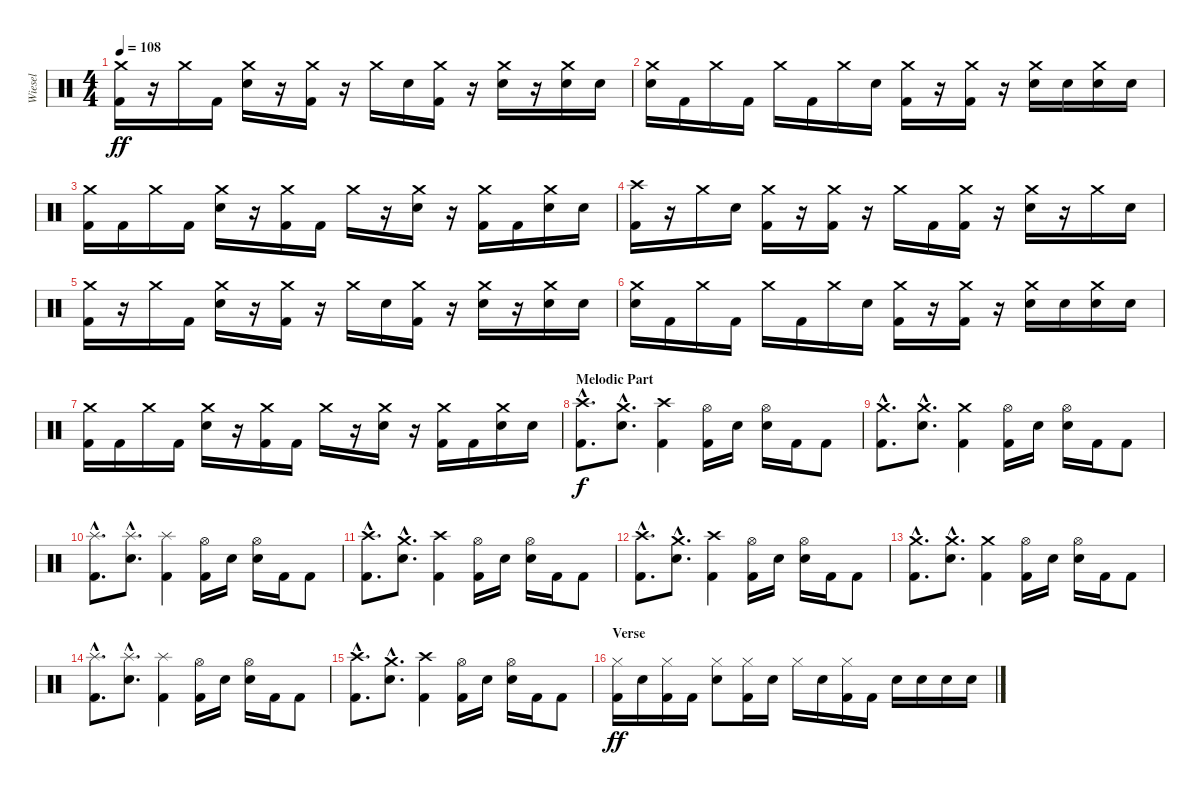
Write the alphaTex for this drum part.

\track ("Wiesel" "Wiesel") {instrument percussion}
\staff {score}
\articulation defaults
\ts (4 4)
\tempo 108
\clef neutral
\ks c
("Crash medium (hit)" "Kick (hit) 2").16{dy ff} r.16 "Crash medium (hit)".16 "Kick (hit) 2".16 ("Crash medium (hit)" "Electric Snare (hit)").16 r.16 ("Crash medium (hit)" "Kick (hit) 2").16 r.16 "Crash medium (hit)".16 "Electric Snare (hit)".16 ("Crash medium (hit)" "Kick (hit) 2").16 r.16 ("Crash medium (hit)" "Electric Snare (hit)").16 r.16 ("Crash medium (hit)" "Electric Snare (hit)").16 "Electric Snare (hit)".16 |
("Crash medium (hit)" "Electric Snare (hit)").16 "Kick (hit) 2".16 "Crash medium (hit)".16 "Kick (hit) 2".16 "Crash medium (hit)".16 "Kick (hit) 2".16 "Crash medium (hit)".16 "Electric Snare (hit)".16 ("Crash medium (hit)" "Kick (hit) 2").16 r.16 ("Crash medium (hit)" "Kick (hit) 2").16 r.16 ("Crash medium (hit)" "Electric Snare (hit)").16 "Electric Snare (hit)".16 ("Crash medium (hit)" "Electric Snare (hit)").16 "Electric Snare (hit)".16 |
("Crash medium (hit)" "Kick (hit) 2").16 "Kick (hit) 2".16 "Crash medium (hit)".16 "Kick (hit) 2".16 ("Crash medium (hit)" "Electric Snare (hit)").16 r.16 ("Crash medium (hit)" "Kick (hit) 2").16 "Kick (hit) 2".16 "Crash medium (hit)".16 r.16 ("Crash medium (hit)" "Electric Snare (hit)").16 r.16 ("Crash medium (hit)" "Kick (hit) 2").16 "Kick (hit) 2".16 ("Crash medium (hit)" "Electric Snare (hit)").16 "Electric Snare (hit)".16 |
("Crash high (hit)" "Kick (hit) 2").16 r.16 "Crash medium (hit)".16 "Electric Snare (hit)".16 ("Crash medium (hit)" "Kick (hit) 2").16 r.16 ("Crash medium (hit)" "Kick (hit) 2").16 r.16 "Crash medium (hit)".16 "Kick (hit) 2".16 ("Crash medium (hit)" "Kick (hit) 2").16 r.16 ("Crash medium (hit)" "Electric Snare (hit)").16 r.16 "Crash medium (hit)".16 "Electric Snare (hit)".16 |
("Crash medium (hit)" "Kick (hit) 2").16 r.16 "Crash medium (hit)".16 "Kick (hit) 2".16 ("Crash medium (hit)" "Electric Snare (hit)").16 r.16 ("Crash medium (hit)" "Kick (hit) 2").16 r.16 "Crash medium (hit)".16 "Electric Snare (hit)".16 ("Crash medium (hit)" "Kick (hit) 2").16 r.16 ("Crash medium (hit)" "Electric Snare (hit)").16 r.16 ("Crash medium (hit)" "Electric Snare (hit)").16 "Electric Snare (hit)".16 |
("Crash medium (hit)" "Electric Snare (hit)").16 "Kick (hit) 2".16 "Crash medium (hit)".16 "Kick (hit) 2".16 "Crash medium (hit)".16 "Kick (hit) 2".16 "Crash medium (hit)".16 "Electric Snare (hit)".16 ("Crash medium (hit)" "Kick (hit) 2").16 r.16 ("Crash medium (hit)" "Kick (hit) 2").16 r.16 ("Crash medium (hit)" "Electric Snare (hit)").16 "Electric Snare (hit)".16 ("Crash medium (hit)" "Electric Snare (hit)").16 "Electric Snare (hit)".16 |
("Crash medium (hit)" "Kick (hit) 2").16 "Kick (hit) 2".16 "Crash medium (hit)".16 "Kick (hit) 2".16 ("Crash medium (hit)" "Electric Snare (hit)").16 r.16 ("Crash medium (hit)" "Kick (hit) 2").16 "Kick (hit) 2".16 "Crash medium (hit)".16 r.16 ("Crash medium (hit)" "Electric Snare (hit)").16 r.16 ("Crash medium (hit)" "Kick (hit) 2").16 "Kick (hit) 2".16 ("Crash medium (hit)" "Electric Snare (hit)").16 "Electric Snare (hit)".16 |
\section ("" "Melodic Part")
("Crash high (hit)"{hac} "Kick (hit) 2"{hac}).8{d dy f} ("Crash medium (hit)"{hac} "Electric Snare (hit)"{hac}).8{d} ("Crash high (hit)" "Kick (hit) 2").4 ("Hi-Hat (open)" "Kick (hit) 2").16 "Electric Snare (hit)".16 ("Hi-Hat (open)" "Electric Snare (hit)").16 "Kick (hit) 2".16 "Kick (hit) 2".8 |
("Crash medium (hit)"{hac} "Kick (hit) 2"{hac}).8{d} ("Crash medium (hit)"{hac} "Electric Snare (hit)"{hac}).8{d} ("Crash medium (hit)" "Kick (hit) 2").4 ("Hi-Hat (open)" "Kick (hit) 2").16 "Electric Snare (hit)".16 ("Hi-Hat (open)" "Electric Snare (hit)").16 "Kick (hit) 2".16 "Kick (hit) 2".8 |
("Splash (hit)"{hac} "Kick (hit) 2"{hac}).8{d} ("Splash (hit)"{hac} "Electric Snare (hit)"{hac}).8{d} ("Splash (hit)" "Kick (hit) 2").4 ("Hi-Hat (open)" "Kick (hit) 2").16 "Electric Snare (hit)".16 ("Hi-Hat (open)" "Electric Snare (hit)").16 "Kick (hit) 2".16 "Kick (hit) 2".8 |
("Crash high (hit)"{hac} "Kick (hit) 2"{hac}).8{d} ("Crash medium (hit)"{hac} "Electric Snare (hit)"{hac}).8{d} ("Crash high (hit)" "Kick (hit) 2").4 ("Hi-Hat (open)" "Kick (hit) 2").16 "Electric Snare (hit)".16 ("Hi-Hat (open)" "Electric Snare (hit)").16 "Kick (hit) 2".16 "Kick (hit) 2".8 |
("Crash high (hit)"{hac} "Kick (hit) 2"{hac}).8{d} ("Crash medium (hit)"{hac} "Electric Snare (hit)"{hac}).8{d} ("Crash high (hit)" "Kick (hit) 2").4 ("Hi-Hat (open)" "Kick (hit) 2").16 "Electric Snare (hit)".16 ("Hi-Hat (open)" "Electric Snare (hit)").16 "Kick (hit) 2".16 "Kick (hit) 2".8 |
("Crash medium (hit)"{hac} "Kick (hit) 2"{hac}).8{d} ("Crash medium (hit)"{hac} "Electric Snare (hit)"{hac}).8{d} ("Crash medium (hit)" "Kick (hit) 2").4 ("Hi-Hat (open)" "Kick (hit) 2").16 "Electric Snare (hit)".16 ("Hi-Hat (open)" "Electric Snare (hit)").16 "Kick (hit) 2".16 "Kick (hit) 2".8 |
("Splash (hit)"{hac} "Kick (hit) 2"{hac}).8{d} ("Splash (hit)"{hac} "Electric Snare (hit)"{hac}).8{d} ("Splash (hit)" "Kick (hit) 2").4 ("Hi-Hat (open)" "Kick (hit) 2").16 "Electric Snare (hit)".16 ("Hi-Hat (open)" "Electric Snare (hit)").16 "Kick (hit) 2".16 "Kick (hit) 2".8 |
("Crash high (hit)"{hac} "Kick (hit) 2"{hac}).8{d} ("Crash medium (hit)"{hac} "Electric Snare (hit)"{hac}).8{d} ("Crash high (hit)" "Kick (hit) 2").4 ("Hi-Hat (open)" "Kick (hit) 2").16 "Electric Snare (hit)".16 ("Hi-Hat (open)" "Electric Snare (hit)").16 "Kick (hit) 2".16 "Kick (hit) 2".8 |
\section ("" "Verse")
("Hi-Hat (closed)" "Kick (hit) 2").16{dy ff} "Electric Snare (hit)".16 ("Hi-Hat (closed)" "Kick (hit) 2").16 "Kick (hit) 2".16 ("Hi-Hat (closed)" "Electric Snare (hit)").8 ("Hi-Hat (closed)" "Kick (hit) 2").16 "Electric Snare (hit)".16 "Hi-Hat (closed)".16 "Electric Snare (hit)".16 ("Hi-Hat (closed)" "Kick (hit) 2").16 "Kick (hit) 2".16 "Electric Snare (hit)".16 "Electric Snare (hit)".16 "Electric Snare (hit)".16 "Electric Snare (hit)".16
